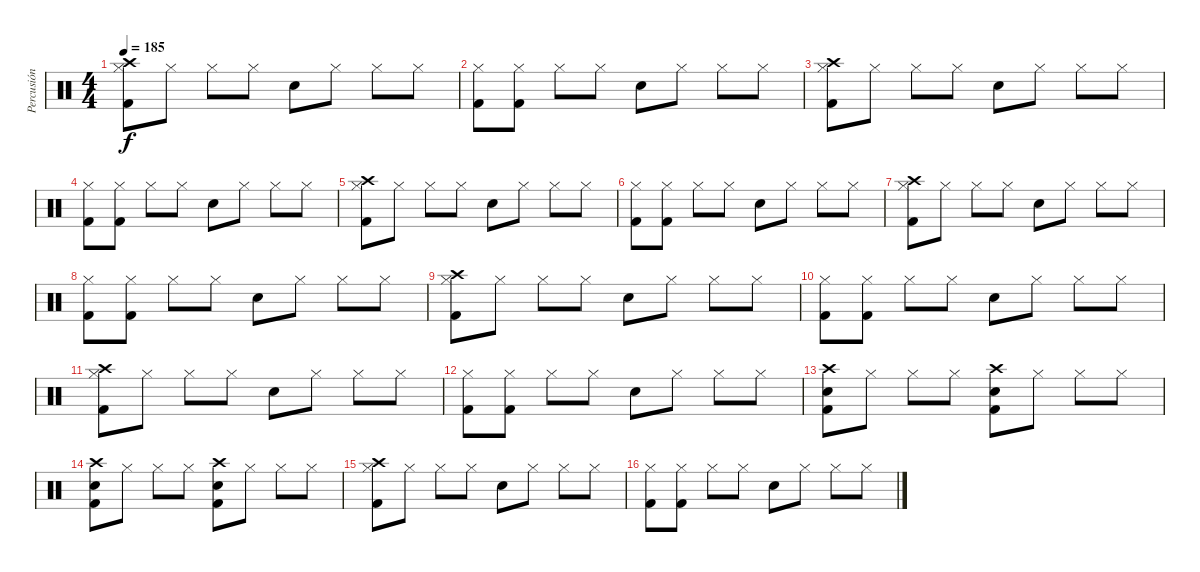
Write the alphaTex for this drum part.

\track ("Percusión" "Percusión") {instrument percussion}
\staff {score}
\articulation defaults
\ts (4 4)
\tempo 185
\clef neutral
\ks c
("Crash high (hit)" "Hi-Hat (closed)" "Kick (hit) 2").8{dy f} "Hi-Hat (closed)".8 "Hi-Hat (closed)".8 "Hi-Hat (closed)".8 "Electric Snare (hit)".8 "Hi-Hat (closed)".8 "Hi-Hat (closed)".8 "Hi-Hat (closed)".8 |
("Hi-Hat (closed)" "Kick (hit) 2").8 ("Hi-Hat (closed)" "Kick (hit) 2").8 "Hi-Hat (closed)".8 "Hi-Hat (closed)".8 "Electric Snare (hit)".8 "Hi-Hat (closed)".8 "Hi-Hat (closed)".8 "Hi-Hat (closed)".8 |
("Crash high (hit)" "Hi-Hat (closed)" "Kick (hit) 2").8 "Hi-Hat (closed)".8 "Hi-Hat (closed)".8 "Hi-Hat (closed)".8 "Electric Snare (hit)".8 "Hi-Hat (closed)".8 "Hi-Hat (closed)".8 "Hi-Hat (closed)".8 |
("Hi-Hat (closed)" "Kick (hit) 2").8 ("Hi-Hat (closed)" "Kick (hit) 2").8 "Hi-Hat (closed)".8 "Hi-Hat (closed)".8 "Electric Snare (hit)".8 "Hi-Hat (closed)".8 "Hi-Hat (closed)".8 "Hi-Hat (closed)".8 |
("Crash high (hit)" "Hi-Hat (closed)" "Kick (hit) 2").8 "Hi-Hat (closed)".8 "Hi-Hat (closed)".8 "Hi-Hat (closed)".8 "Electric Snare (hit)".8 "Hi-Hat (closed)".8 "Hi-Hat (closed)".8 "Hi-Hat (closed)".8 |
("Hi-Hat (closed)" "Kick (hit) 2").8 ("Hi-Hat (closed)" "Kick (hit) 2").8 "Hi-Hat (closed)".8 "Hi-Hat (closed)".8 "Electric Snare (hit)".8 "Hi-Hat (closed)".8 "Hi-Hat (closed)".8 "Hi-Hat (closed)".8 |
("Crash high (hit)" "Hi-Hat (closed)" "Kick (hit) 2").8 "Hi-Hat (closed)".8 "Hi-Hat (closed)".8 "Hi-Hat (closed)".8 "Electric Snare (hit)".8 "Hi-Hat (closed)".8 "Hi-Hat (closed)".8 "Hi-Hat (closed)".8 |
("Hi-Hat (closed)" "Kick (hit) 2").8 ("Hi-Hat (closed)" "Kick (hit) 2").8 "Hi-Hat (closed)".8 "Hi-Hat (closed)".8 "Electric Snare (hit)".8 "Hi-Hat (closed)".8 "Hi-Hat (closed)".8 "Hi-Hat (closed)".8 |
("Crash high (hit)" "Hi-Hat (closed)" "Kick (hit) 2").8 "Hi-Hat (closed)".8 "Hi-Hat (closed)".8 "Hi-Hat (closed)".8 "Electric Snare (hit)".8 "Hi-Hat (closed)".8 "Hi-Hat (closed)".8 "Hi-Hat (closed)".8 |
("Hi-Hat (closed)" "Kick (hit) 2").8 ("Hi-Hat (closed)" "Kick (hit) 2").8 "Hi-Hat (closed)".8 "Hi-Hat (closed)".8 "Electric Snare (hit)".8 "Hi-Hat (closed)".8 "Hi-Hat (closed)".8 "Hi-Hat (closed)".8 |
("Crash high (hit)" "Hi-Hat (closed)" "Kick (hit) 2").8 "Hi-Hat (closed)".8 "Hi-Hat (closed)".8 "Hi-Hat (closed)".8 "Electric Snare (hit)".8 "Hi-Hat (closed)".8 "Hi-Hat (closed)".8 "Hi-Hat (closed)".8 |
("Hi-Hat (closed)" "Kick (hit) 2").8 ("Hi-Hat (closed)" "Kick (hit) 2").8 "Hi-Hat (closed)".8 "Hi-Hat (closed)".8 "Electric Snare (hit)".8 "Hi-Hat (closed)".8 "Hi-Hat (closed)".8 "Hi-Hat (closed)".8 |
("Crash high (hit)" "Electric Snare (hit)" "Kick (hit) 2").8 "Hi-Hat (closed)".8 "Hi-Hat (closed)".8 "Hi-Hat (closed)".8 ("Crash high (hit)" "Electric Snare (hit)" "Kick (hit) 2").8 "Hi-Hat (closed)".8 "Hi-Hat (closed)".8 "Hi-Hat (closed)".8 |
("Crash high (hit)" "Electric Snare (hit)" "Kick (hit) 2").8 "Hi-Hat (closed)".8 "Hi-Hat (closed)".8 "Hi-Hat (closed)".8 ("Crash high (hit)" "Electric Snare (hit)" "Kick (hit) 2").8 "Hi-Hat (closed)".8 "Hi-Hat (closed)".8 "Hi-Hat (closed)".8 |
("Crash high (hit)" "Hi-Hat (closed)" "Kick (hit) 2").8 "Hi-Hat (closed)".8 "Hi-Hat (closed)".8 "Hi-Hat (closed)".8 "Electric Snare (hit)".8 "Hi-Hat (closed)".8 "Hi-Hat (closed)".8 "Hi-Hat (closed)".8 |
("Hi-Hat (closed)" "Kick (hit) 2").8 ("Hi-Hat (closed)" "Kick (hit) 2").8 "Hi-Hat (closed)".8 "Hi-Hat (closed)".8 "Electric Snare (hit)".8 "Hi-Hat (closed)".8 "Hi-Hat (closed)".8 "Hi-Hat (closed)".8
